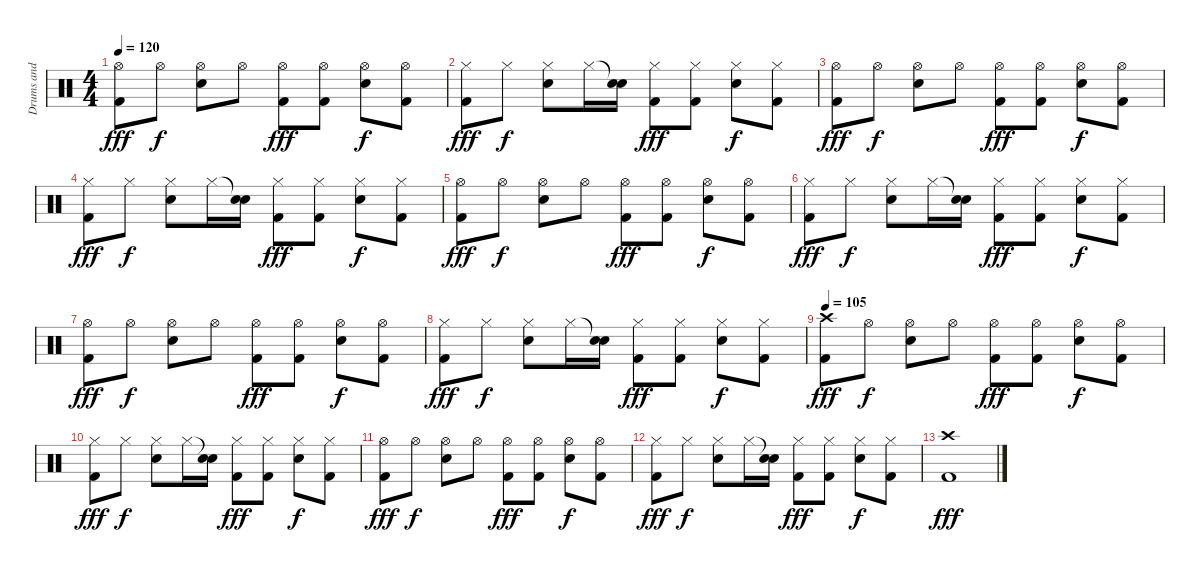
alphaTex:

\track ("Drums and Percussion" "Drums and ") {instrument percussion}
\staff {score}
\articulation defaults
\ts (4 4)
\tempo 120
\clef neutral
\ks c
("Hi-Hat (open)" "Kick (hit) 2").8{dy fff} "Hi-Hat (open)".8{dy f} ("Hi-Hat (open)" "Snare (hit) 2").8 "Hi-Hat (open)".8 ("Hi-Hat (open)" "Kick (hit) 2").8{dy fff} ("Hi-Hat (open)" "Kick (hit) 2").8 ("Hi-Hat (open)" "Snare (hit) 2").8{dy f} ("Hi-Hat (open)" "Kick (hit) 2").8 |
("Hi-Hat (closed)" "Kick (hit) 2").8{dy fff} "Hi-Hat (closed)".8{dy f} ("Hi-Hat (closed)" "Snare (hit) 2").8 "Hi-Hat (closed)".16 ("Snare (hit)"{t} "Snare (hit) 2").16 ("Hi-Hat (closed)" "Kick (hit) 2").8{dy fff} ("Hi-Hat (closed)" "Kick (hit) 2").8 ("Hi-Hat (closed)" "Snare (hit) 2").8{dy f} ("Hi-Hat (closed)" "Kick (hit) 2").8 |
("Hi-Hat (open)" "Kick (hit) 2").8{dy fff} "Hi-Hat (open)".8{dy f} ("Hi-Hat (open)" "Snare (hit) 2").8 "Hi-Hat (open)".8 ("Hi-Hat (open)" "Kick (hit) 2").8{dy fff} ("Hi-Hat (open)" "Kick (hit) 2").8 ("Hi-Hat (open)" "Snare (hit) 2").8{dy f} ("Hi-Hat (open)" "Kick (hit) 2").8 |
("Hi-Hat (closed)" "Kick (hit) 2").8{dy fff} "Hi-Hat (closed)".8{dy f} ("Hi-Hat (closed)" "Snare (hit) 2").8 "Hi-Hat (closed)".16 ("Snare (hit)"{t} "Snare (hit) 2").16 ("Hi-Hat (closed)" "Kick (hit) 2").8{dy fff} ("Hi-Hat (closed)" "Kick (hit) 2").8 ("Hi-Hat (closed)" "Snare (hit) 2").8{dy f} ("Hi-Hat (closed)" "Kick (hit) 2").8 |
("Hi-Hat (open)" "Kick (hit) 2").8{dy fff} "Hi-Hat (open)".8{dy f} ("Hi-Hat (open)" "Snare (hit) 2").8 "Hi-Hat (open)".8 ("Hi-Hat (open)" "Kick (hit) 2").8{dy fff} ("Hi-Hat (open)" "Kick (hit) 2").8 ("Hi-Hat (open)" "Snare (hit) 2").8{dy f} ("Hi-Hat (open)" "Kick (hit) 2").8 |
("Hi-Hat (closed)" "Kick (hit) 2").8{dy fff} "Hi-Hat (closed)".8{dy f} ("Hi-Hat (closed)" "Snare (hit) 2").8 "Hi-Hat (closed)".16 ("Snare (hit)"{t} "Snare (hit) 2").16 ("Hi-Hat (closed)" "Kick (hit) 2").8{dy fff} ("Hi-Hat (closed)" "Kick (hit) 2").8 ("Hi-Hat (closed)" "Snare (hit) 2").8{dy f} ("Hi-Hat (closed)" "Kick (hit) 2").8 |
("Hi-Hat (open)" "Kick (hit) 2").8{dy fff} "Hi-Hat (open)".8{dy f} ("Hi-Hat (open)" "Snare (hit) 2").8 "Hi-Hat (open)".8 ("Hi-Hat (open)" "Kick (hit) 2").8{dy fff} ("Hi-Hat (open)" "Kick (hit) 2").8 ("Hi-Hat (open)" "Snare (hit) 2").8{dy f} ("Hi-Hat (open)" "Kick (hit) 2").8 |
("Hi-Hat (closed)" "Kick (hit) 2").8{dy fff} "Hi-Hat (closed)".8{dy f} ("Hi-Hat (closed)" "Snare (hit) 2").8 "Hi-Hat (closed)".16 ("Snare (hit)"{t} "Snare (hit) 2").16 ("Hi-Hat (closed)" "Kick (hit) 2").8{dy fff} ("Hi-Hat (closed)" "Kick (hit) 2").8 ("Hi-Hat (closed)" "Snare (hit) 2").8{dy f} ("Hi-Hat (closed)" "Kick (hit) 2").8 |
\tempo 105
("Crash high (hit)" "Kick (hit) 2").8{dy fff} "Hi-Hat (open)".8{dy f} ("Hi-Hat (open)" "Snare (hit) 2").8 "Hi-Hat (open)".8 ("Hi-Hat (open)" "Kick (hit) 2").8{dy fff} ("Hi-Hat (open)" "Kick (hit) 2").8 ("Hi-Hat (open)" "Snare (hit) 2").8{dy f} ("Hi-Hat (open)" "Kick (hit) 2").8 |
("Hi-Hat (closed)" "Kick (hit) 2").8{dy fff} "Hi-Hat (closed)".8{dy f} ("Hi-Hat (closed)" "Snare (hit) 2").8 "Hi-Hat (closed)".16 ("Snare (hit)"{t} "Snare (hit) 2").16 ("Hi-Hat (closed)" "Kick (hit) 2").8{dy fff} ("Hi-Hat (closed)" "Kick (hit) 2").8 ("Hi-Hat (closed)" "Snare (hit) 2").8{dy f} ("Hi-Hat (closed)" "Kick (hit) 2").8 |
("Hi-Hat (open)" "Kick (hit) 2").8{dy fff} "Hi-Hat (open)".8{dy f} ("Hi-Hat (open)" "Snare (hit) 2").8 "Hi-Hat (open)".8 ("Hi-Hat (open)" "Kick (hit) 2").8{dy fff} ("Hi-Hat (open)" "Kick (hit) 2").8 ("Hi-Hat (open)" "Snare (hit) 2").8{dy f} ("Hi-Hat (open)" "Kick (hit) 2").8 |
("Hi-Hat (closed)" "Kick (hit) 2").8{dy fff} "Hi-Hat (closed)".8{dy f} ("Hi-Hat (closed)" "Snare (hit) 2").8 "Hi-Hat (closed)".16 ("Snare (hit)"{t} "Snare (hit) 2").16 ("Hi-Hat (closed)" "Kick (hit) 2").8{dy fff} ("Hi-Hat (closed)" "Kick (hit) 2").8 ("Hi-Hat (closed)" "Snare (hit) 2").8{dy f} ("Hi-Hat (closed)" "Kick (hit) 2").8 |
("Crash high (hit)" "Kick (hit) 2").1{dy fff}
